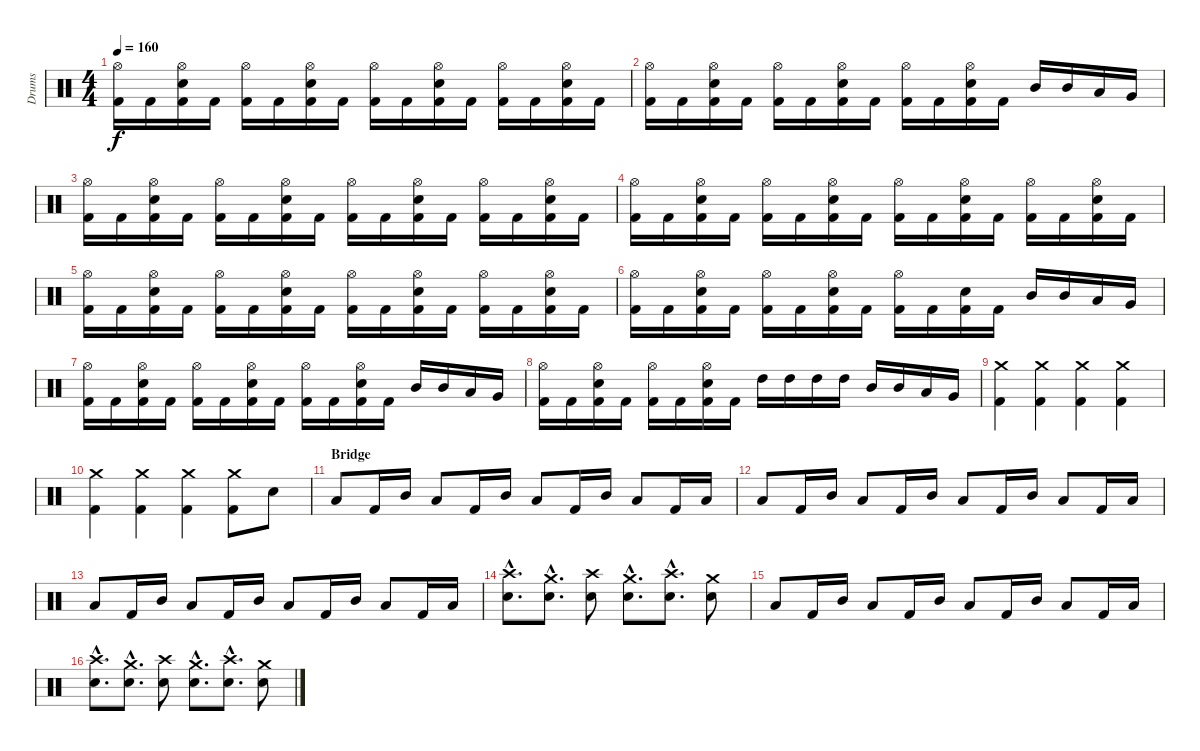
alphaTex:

\track ("Drums" "Drums") {instrument percussion}
\staff {score}
\articulation defaults
\ts (4 4)
\tempo 160
\clef neutral
\ks c
("Hi-Hat (open)" "Kick (hit) 2").16{dy f} "Kick (hit) 2".16 ("Hi-Hat (open)" "Electric Snare (hit)" "Kick (hit) 2").16 "Kick (hit) 2".16 ("Hi-Hat (open)" "Kick (hit) 2").16 "Kick (hit) 2".16 ("Hi-Hat (open)" "Electric Snare (hit)" "Kick (hit) 2").16 "Kick (hit) 2".16 ("Hi-Hat (open)" "Kick (hit) 2").16 "Kick (hit) 2".16 ("Hi-Hat (open)" "Electric Snare (hit)" "Kick (hit) 2").16 "Kick (hit) 2".16 ("Hi-Hat (open)" "Kick (hit) 2").16 "Kick (hit) 2".16 ("Hi-Hat (open)" "Electric Snare (hit)" "Kick (hit) 2").16 "Kick (hit) 2".16 |
("Hi-Hat (open)" "Kick (hit) 2").16 "Kick (hit) 2".16 ("Hi-Hat (open)" "Electric Snare (hit)" "Kick (hit) 2").16 "Kick (hit) 2".16 ("Hi-Hat (open)" "Kick (hit) 2").16 "Kick (hit) 2".16 ("Hi-Hat (open)" "Electric Snare (hit)" "Kick (hit) 2").16 "Kick (hit) 2".16 ("Hi-Hat (open)" "Kick (hit) 2").16 "Kick (hit) 2".16 ("Hi-Hat (open)" "Electric Snare (hit)" "Kick (hit) 2").16 "Kick (hit) 2".16 "Mid Tom (hit)".16 "Mid Tom (hit)".16 "Low Tom (hit)".16 "Very Low Tom (hit)".16 |
("Hi-Hat (open)" "Kick (hit) 2").16 "Kick (hit) 2".16 ("Hi-Hat (open)" "Electric Snare (hit)" "Kick (hit) 2").16 "Kick (hit) 2".16 ("Hi-Hat (open)" "Kick (hit) 2").16 "Kick (hit) 2".16 ("Hi-Hat (open)" "Electric Snare (hit)" "Kick (hit) 2").16 "Kick (hit) 2".16 ("Hi-Hat (open)" "Kick (hit) 2").16 "Kick (hit) 2".16 ("Hi-Hat (open)" "Electric Snare (hit)" "Kick (hit) 2").16 "Kick (hit) 2".16 ("Hi-Hat (open)" "Kick (hit) 2").16 "Kick (hit) 2".16 ("Hi-Hat (open)" "Electric Snare (hit)" "Kick (hit) 2").16 "Kick (hit) 2".16 |
("Hi-Hat (open)" "Kick (hit) 2").16 "Kick (hit) 2".16 ("Hi-Hat (open)" "Electric Snare (hit)" "Kick (hit) 2").16 "Kick (hit) 2".16 ("Hi-Hat (open)" "Kick (hit) 2").16 "Kick (hit) 2".16 ("Hi-Hat (open)" "Electric Snare (hit)" "Kick (hit) 2").16 "Kick (hit) 2".16 ("Hi-Hat (open)" "Kick (hit) 2").16 "Kick (hit) 2".16 ("Hi-Hat (open)" "Electric Snare (hit)" "Kick (hit) 2").16 "Kick (hit) 2".16 ("Hi-Hat (open)" "Kick (hit) 2").16 "Kick (hit) 2".16 ("Hi-Hat (open)" "Electric Snare (hit)" "Kick (hit) 2").16 "Kick (hit) 2".16 |
("Hi-Hat (open)" "Kick (hit) 2").16 "Kick (hit) 2".16 ("Hi-Hat (open)" "Electric Snare (hit)" "Kick (hit) 2").16 "Kick (hit) 2".16 ("Hi-Hat (open)" "Kick (hit) 2").16 "Kick (hit) 2".16 ("Hi-Hat (open)" "Electric Snare (hit)" "Kick (hit) 2").16 "Kick (hit) 2".16 ("Hi-Hat (open)" "Kick (hit) 2").16 "Kick (hit) 2".16 ("Hi-Hat (open)" "Electric Snare (hit)" "Kick (hit) 2").16 "Kick (hit) 2".16 ("Hi-Hat (open)" "Kick (hit) 2").16 "Kick (hit) 2".16 ("Hi-Hat (open)" "Electric Snare (hit)" "Kick (hit) 2").16 "Kick (hit) 2".16 |
("Hi-Hat (open)" "Kick (hit) 2").16 "Kick (hit) 2".16 ("Hi-Hat (open)" "Electric Snare (hit)" "Kick (hit) 2").16 "Kick (hit) 2".16 ("Hi-Hat (open)" "Kick (hit) 2").16 "Kick (hit) 2".16 ("Hi-Hat (open)" "Electric Snare (hit)" "Kick (hit) 2").16 "Kick (hit) 2".16 ("Hi-Hat (open)" "Kick (hit) 2").16 "Kick (hit) 2".16 ("Electric Snare (hit)" "Kick (hit) 2").16 "Kick (hit) 2".16 "Mid Tom (hit)".16 "Mid Tom (hit)".16 "Low Tom (hit)".16 "Very Low Tom (hit)".16 |
("Hi-Hat (open)" "Kick (hit) 2").16 "Kick (hit) 2".16 ("Hi-Hat (open)" "Electric Snare (hit)" "Kick (hit) 2").16 "Kick (hit) 2".16 ("Hi-Hat (open)" "Kick (hit) 2").16 "Kick (hit) 2".16 ("Hi-Hat (open)" "Electric Snare (hit)" "Kick (hit) 2").16 "Kick (hit) 2".16 ("Hi-Hat (open)" "Kick (hit) 2").16 "Kick (hit) 2".16 ("Hi-Hat (open)" "Electric Snare (hit)" "Kick (hit) 2").16 "Kick (hit) 2".16 "Mid Tom (hit)".16 "Mid Tom (hit)".16 "Low Tom (hit)".16 "Very Low Tom (hit)".16 |
("Hi-Hat (open)" "Kick (hit) 2").16 "Kick (hit) 2".16 ("Hi-Hat (open)" "Electric Snare (hit)" "Kick (hit) 2").16 "Kick (hit) 2".16 ("Hi-Hat (open)" "Kick (hit) 2").16 "Kick (hit) 2".16 ("Hi-Hat (open)" "Electric Snare (hit)" "Kick (hit) 2").16 "Kick (hit) 2".16 "High Tom (hit)".16 "High Tom (hit)".16 "High Tom (hit)".16 "High Tom (hit)".16 "Mid Tom (hit)".16 "Mid Tom (hit)".16 "Low Tom (hit)".16 "Very Low Tom (hit)".16 |
("Crash medium (hit)" "Kick (hit) 2").4 ("Crash medium (hit)" "Kick (hit) 2").4 ("Crash medium (hit)" "Kick (hit) 2").4 ("Crash medium (hit)" "Kick (hit) 2").4 |
("Crash medium (hit)" "Kick (hit) 2").4 ("Crash medium (hit)" "Kick (hit) 2").4 ("Crash medium (hit)" "Kick (hit) 2").4 ("Crash medium (hit)" "Kick (hit) 2").8 "Electric Snare (hit)".8 |
\section ("" "Bridge")
"Low Tom (hit)".8 "Kick (hit) 2".16 "Mid Tom (hit)".16 "Low Tom (hit)".8 "Kick (hit) 2".16 "Mid Tom (hit)".16 "Low Tom (hit)".8 "Kick (hit) 2".16 "Mid Tom (hit)".16 "Low Tom (hit)".8 "Kick (hit) 2".16 "Low Tom (hit)".16 |
"Low Tom (hit)".8 "Kick (hit) 2".16 "Mid Tom (hit)".16 "Low Tom (hit)".8 "Kick (hit) 2".16 "Mid Tom (hit)".16 "Low Tom (hit)".8 "Kick (hit) 2".16 "Mid Tom (hit)".16 "Low Tom (hit)".8 "Kick (hit) 2".16 "Low Tom (hit)".16 |
"Low Tom (hit)".8 "Kick (hit) 2".16 "Mid Tom (hit)".16 "Low Tom (hit)".8 "Kick (hit) 2".16 "Mid Tom (hit)".16 "Low Tom (hit)".8 "Kick (hit) 2".16 "Mid Tom (hit)".16 "Low Tom (hit)".8 "Kick (hit) 2".16 "Low Tom (hit)".16 |
("Crash high (hit)"{hac} "Electric Snare (hit)"{hac}).8{d} ("Crash medium (hit)"{hac} "Electric Snare (hit)"{hac}).8{d} ("Crash high (hit)" "Electric Snare (hit)").8 ("Crash medium (hit)"{hac} "Electric Snare (hit)"{hac}).8{d} ("Crash high (hit)"{hac} "Electric Snare (hit)"{hac}).8{d} ("Crash medium (hit)" "Electric Snare (hit)").8 |
"Low Tom (hit)".8 "Kick (hit) 2".16 "Mid Tom (hit)".16 "Low Tom (hit)".8 "Kick (hit) 2".16 "Mid Tom (hit)".16 "Low Tom (hit)".8 "Kick (hit) 2".16 "Mid Tom (hit)".16 "Low Tom (hit)".8 "Kick (hit) 2".16 "Low Tom (hit)".16 |
("Crash high (hit)"{hac} "Electric Snare (hit)"{hac}).8{d} ("Crash medium (hit)"{hac} "Electric Snare (hit)"{hac}).8{d} ("Crash high (hit)" "Electric Snare (hit)").8 ("Crash medium (hit)"{hac} "Electric Snare (hit)"{hac}).8{d} ("Crash high (hit)"{hac} "Electric Snare (hit)"{hac}).8{d} ("Crash medium (hit)" "Electric Snare (hit)").8
